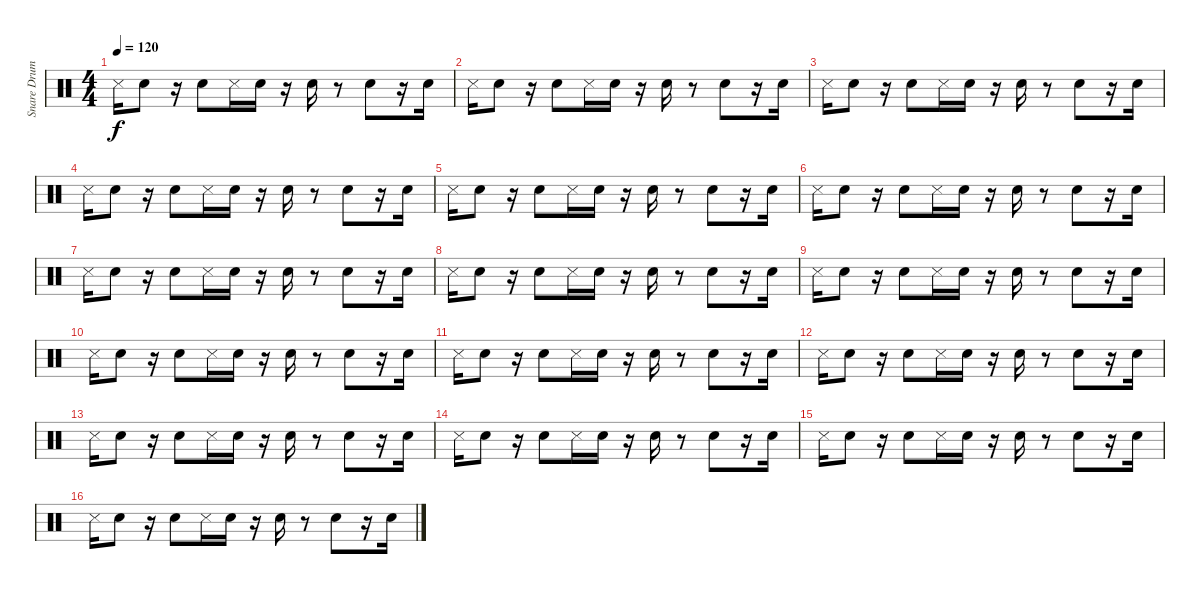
\track ("Snare Drum" "Snare Drum") {instrument percussion}
\staff {score}
\articulation defaults
\ts (4 4)
\tempo 120
\clef neutral
\ks c "Snare (side stick) 3".16{dy f} "Electric Snare (hit)".8
r.16 "Electric Snare (hit)".8 "Snare (side stick) 3".16 "Electric Snare (hit)".16 r.16 "Electric Snare (hit)".16 r.8 "Electric Snare (hit)".8 r.16 "Electric Snare (hit)".16 |
"Snare (side stick) 3".16 "Electric Snare (hit)".8 r.16 "Electric Snare (hit)".8 "Snare (side stick) 3".16 "Electric Snare (hit)".16 r.16 "Electric Snare (hit)".16 r.8 "Electric Snare (hit)".8 r.16 "Electric Snare (hit)".16 |
"Snare (side stick) 3".16 "Electric Snare (hit)".8 r.16 "Electric Snare (hit)".8 "Snare (side stick) 3".16 "Electric Snare (hit)".16 r.16 "Electric Snare (hit)".16 r.8 "Electric Snare (hit)".8 r.16 "Electric Snare (hit)".16 |
"Snare (side stick) 3".16 "Electric Snare (hit)".8 r.16 "Electric Snare (hit)".8 "Snare (side stick) 3".16 "Electric Snare (hit)".16 r.16 "Electric Snare (hit)".16 r.8 "Electric Snare (hit)".8 r.16 "Electric Snare (hit)".16 |
"Snare (side stick) 3".16 "Electric Snare (hit)".8 r.16 "Electric Snare (hit)".8 "Snare (side stick) 3".16 "Electric Snare (hit)".16 r.16 "Electric Snare (hit)".16 r.8 "Electric Snare (hit)".8 r.16 "Electric Snare (hit)".16 |
"Snare (side stick) 3".16 "Electric Snare (hit)".8 r.16 "Electric Snare (hit)".8 "Snare (side stick) 3".16 "Electric Snare (hit)".16 r.16 "Electric Snare (hit)".16 r.8 "Electric Snare (hit)".8 r.16 "Electric Snare (hit)".16 |
"Snare (side stick) 3".16 "Electric Snare (hit)".8 r.16 "Electric Snare (hit)".8 "Snare (side stick) 3".16 "Electric Snare (hit)".16 r.16 "Electric Snare (hit)".16 r.8 "Electric Snare (hit)".8 r.16 "Electric Snare (hit)".16 |
"Snare (side stick) 3".16 "Electric Snare (hit)".8 r.16 "Electric Snare (hit)".8 "Snare (side stick) 3".16 "Electric Snare (hit)".16 r.16 "Electric Snare (hit)".16 r.8 "Electric Snare (hit)".8 r.16 "Electric Snare (hit)".16 |
"Snare (side stick) 3".16 "Electric Snare (hit)".8 r.16 "Electric Snare (hit)".8 "Snare (side stick) 3".16 "Electric Snare (hit)".16 r.16 "Electric Snare (hit)".16 r.8 "Electric Snare (hit)".8 r.16 "Electric Snare (hit)".16 |
"Snare (side stick) 3".16 "Electric Snare (hit)".8 r.16 "Electric Snare (hit)".8 "Snare (side stick) 3".16 "Electric Snare (hit)".16 r.16 "Electric Snare (hit)".16 r.8 "Electric Snare (hit)".8 r.16 "Electric Snare (hit)".16 |
"Snare (side stick) 3".16 "Electric Snare (hit)".8 r.16 "Electric Snare (hit)".8 "Snare (side stick) 3".16 "Electric Snare (hit)".16 r.16 "Electric Snare (hit)".16 r.8 "Electric Snare (hit)".8 r.16 "Electric Snare (hit)".16 |
"Snare (side stick) 3".16 "Electric Snare (hit)".8 r.16 "Electric Snare (hit)".8 "Snare (side stick) 3".16 "Electric Snare (hit)".16 r.16 "Electric Snare (hit)".16 r.8 "Electric Snare (hit)".8 r.16 "Electric Snare (hit)".16 |
"Snare (side stick) 3".16 "Electric Snare (hit)".8 r.16 "Electric Snare (hit)".8 "Snare (side stick) 3".16 "Electric Snare (hit)".16 r.16 "Electric Snare (hit)".16 r.8 "Electric Snare (hit)".8 r.16 "Electric Snare (hit)".16 |
"Snare (side stick) 3".16 "Electric Snare (hit)".8 r.16 "Electric Snare (hit)".8 "Snare (side stick) 3".16 "Electric Snare (hit)".16 r.16 "Electric Snare (hit)".16 r.8 "Electric Snare (hit)".8 r.16 "Electric Snare (hit)".16 |
"Snare (side stick) 3".16 "Electric Snare (hit)".8 r.16 "Electric Snare (hit)".8 "Snare (side stick) 3".16 "Electric Snare (hit)".16 r.16 "Electric Snare (hit)".16 r.8 "Electric Snare (hit)".8 r.16 "Electric Snare (hit)".16 |
"Snare (side stick) 3".16 "Electric Snare (hit)".8 r.16 "Electric Snare (hit)".8 "Snare (side stick) 3".16 "Electric Snare (hit)".16 r.16 "Electric Snare (hit)".16 r.8 "Electric Snare (hit)".8 r.16 "Electric Snare (hit)".16
